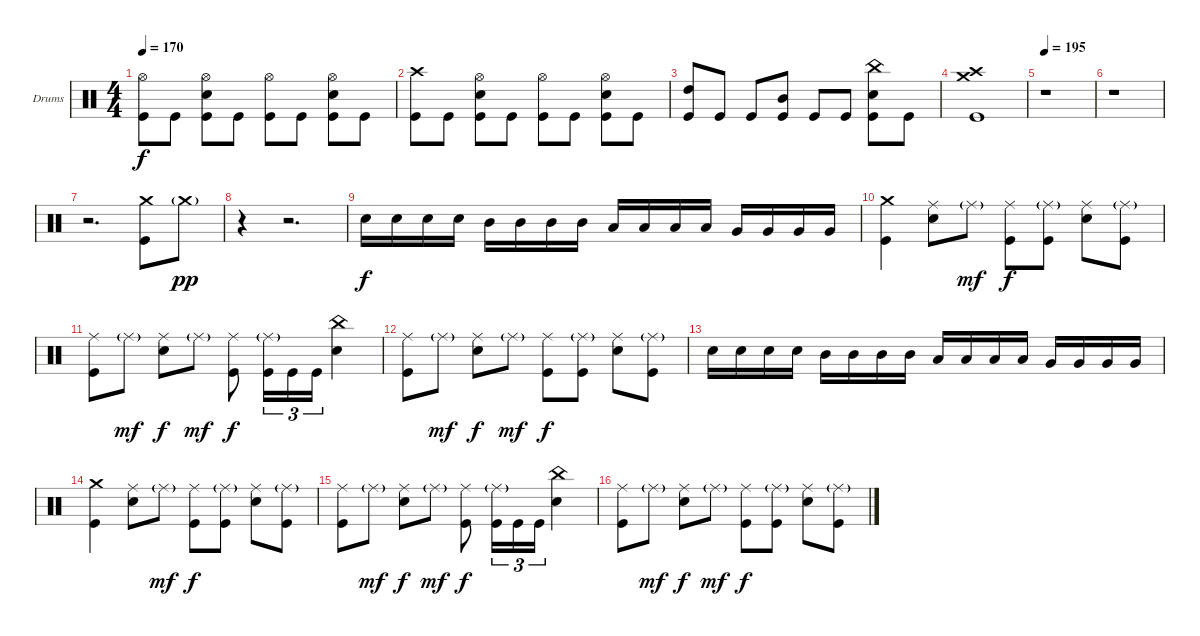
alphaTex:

\bracketExtendMode groupsimilarinstruments
\firstSystemTrackNameOrientation horizontal
\otherSystemsTrackNameOrientation horizontal
\track ("Дмитрий Кривенков" "Drums") {instrument percussion}
\staff {score}
\articulation defaults
\ts (4 4)
\tempo 170
\clef neutral
\ks c
("Hi-Hat (open)" "Kick (hit)").8{dy f} "Kick (hit)".8 ("Hi-Hat (open)" "Snare (hit) 2" "Kick (hit)").8 "Kick (hit)".8 ("Hi-Hat (open)" "Kick (hit)").8 "Kick (hit)".8 ("Hi-Hat (open)" "Snare (hit) 2" "Kick (hit)").8 "Kick (hit)".8 |
("Crash high (hit)" "Kick (hit)").8 "Kick (hit)".8 ("Hi-Hat (open)" "Snare (hit) 2" "Kick (hit)").8 "Kick (hit)".8 ("Hi-Hat (open)" "Kick (hit)").8 "Kick (hit)".8 ("Hi-Hat (open)" "Snare (hit) 2" "Kick (hit)").8 "Kick (hit)".8 |
("High Tom (hit)" "Kick (hit)").8 "Kick (hit)".8 "Kick (hit)".8 ("Mid Tom (hit)" "Kick (hit)").8 "Kick (hit)".8 "Kick (hit)".8 ("China (hit)" "Snare (hit) 2" "Kick (hit)").8 "Kick (hit)".8 |
("Crash high (hit)" "Crash medium (hit)" "Kick (hit)").1 |
\tempo 195
r.1 |
r.1 |
r.2{d} ("Crash medium (hit)" "Kick (hit)").8 "Crash medium (hit)"{g}.8{dy pp} |
r.4 r.2{d} |
"Snare (hit) 2".16{dy f} "Snare (hit) 2".16 "Snare (hit) 2".16 "Snare (hit) 2".16 "Mid Tom (hit)".16 "Mid Tom (hit)".16 "Mid Tom (hit)".16 "Mid Tom (hit)".16 "Low Tom (hit)".16 "Low Tom (hit)".16 "Low Tom (hit)".16 "Low Tom (hit)".16 "Very Low Tom (hit)".16 "Very Low Tom (hit)".16 "Very Low Tom (hit)".16 "Very Low Tom (hit)".16 |
("Crash medium (hit)" "Kick (hit)").4 ("Ride (middle)" "Snare (hit) 2").8 "Ride (middle)"{g}.8{dy mf} ("Ride (middle)" "Kick (hit)").8{dy f} ("Ride (middle)"{g} "Kick (hit)").8 ("Ride (middle)" "Snare (hit) 2").8 ("Ride (middle)"{g} "Kick (hit)").8 |
("Ride (middle)" "Kick (hit)").8 "Ride (middle)"{g}.8{dy mf} ("Ride (middle)" "Snare (hit) 2").8{dy f} "Ride (middle)"{g}.8{dy mf} ("Ride (middle)" "Kick (hit)").8{dy f} ("Ride (middle)"{g} "Kick (hit)").16{tu (3 2)} "Kick (hit)".16{tu (3 2)} "Kick (hit)".16{tu (3 2)} ("China (hit)" "Snare (hit) 2").4 |
("Ride (middle)" "Kick (hit)").8 "Ride (middle)"{g}.8{dy mf} ("Ride (middle)" "Snare (hit) 2").8{dy f} "Ride (middle)"{g}.8{dy mf} ("Ride (middle)" "Kick (hit)").8{dy f} ("Ride (middle)"{g} "Kick (hit)").8 ("Ride (middle)" "Snare (hit) 2").8 ("Ride (middle)"{g} "Kick (hit)").8 |
"Snare (hit) 2".16 "Snare (hit) 2".16 "Snare (hit) 2".16 "Snare (hit) 2".16 "Mid Tom (hit)".16 "Mid Tom (hit)".16 "Mid Tom (hit)".16 "Mid Tom (hit)".16 "Low Tom (hit)".16 "Low Tom (hit)".16 "Low Tom (hit)".16 "Low Tom (hit)".16 "Very Low Tom (hit)".16 "Very Low Tom (hit)".16 "Very Low Tom (hit)".16 "Very Low Tom (hit)".16 |
("Crash medium (hit)" "Kick (hit)").4 ("Ride (middle)" "Snare (hit) 2").8 "Ride (middle)"{g}.8{dy mf} ("Ride (middle)" "Kick (hit)").8{dy f} ("Ride (middle)"{g} "Kick (hit)").8 ("Ride (middle)" "Snare (hit) 2").8 ("Ride (middle)"{g} "Kick (hit)").8 |
("Ride (middle)" "Kick (hit)").8 "Ride (middle)"{g}.8{dy mf} ("Ride (middle)" "Snare (hit) 2").8{dy f} "Ride (middle)"{g}.8{dy mf} ("Ride (middle)" "Kick (hit)").8{dy f} ("Ride (middle)"{g} "Kick (hit)").16{tu (3 2)} "Kick (hit)".16{tu (3 2)} "Kick (hit)".16{tu (3 2)} ("China (hit)" "Snare (hit) 2").4 |
("Ride (middle)" "Kick (hit)").8 "Ride (middle)"{g}.8{dy mf} ("Ride (middle)" "Snare (hit) 2").8{dy f} "Ride (middle)"{g}.8{dy mf} ("Ride (middle)" "Kick (hit)").8{dy f} ("Ride (middle)"{g} "Kick (hit)").8 ("Ride (middle)" "Snare (hit) 2").8 ("Ride (middle)"{g} "Kick (hit)").8
